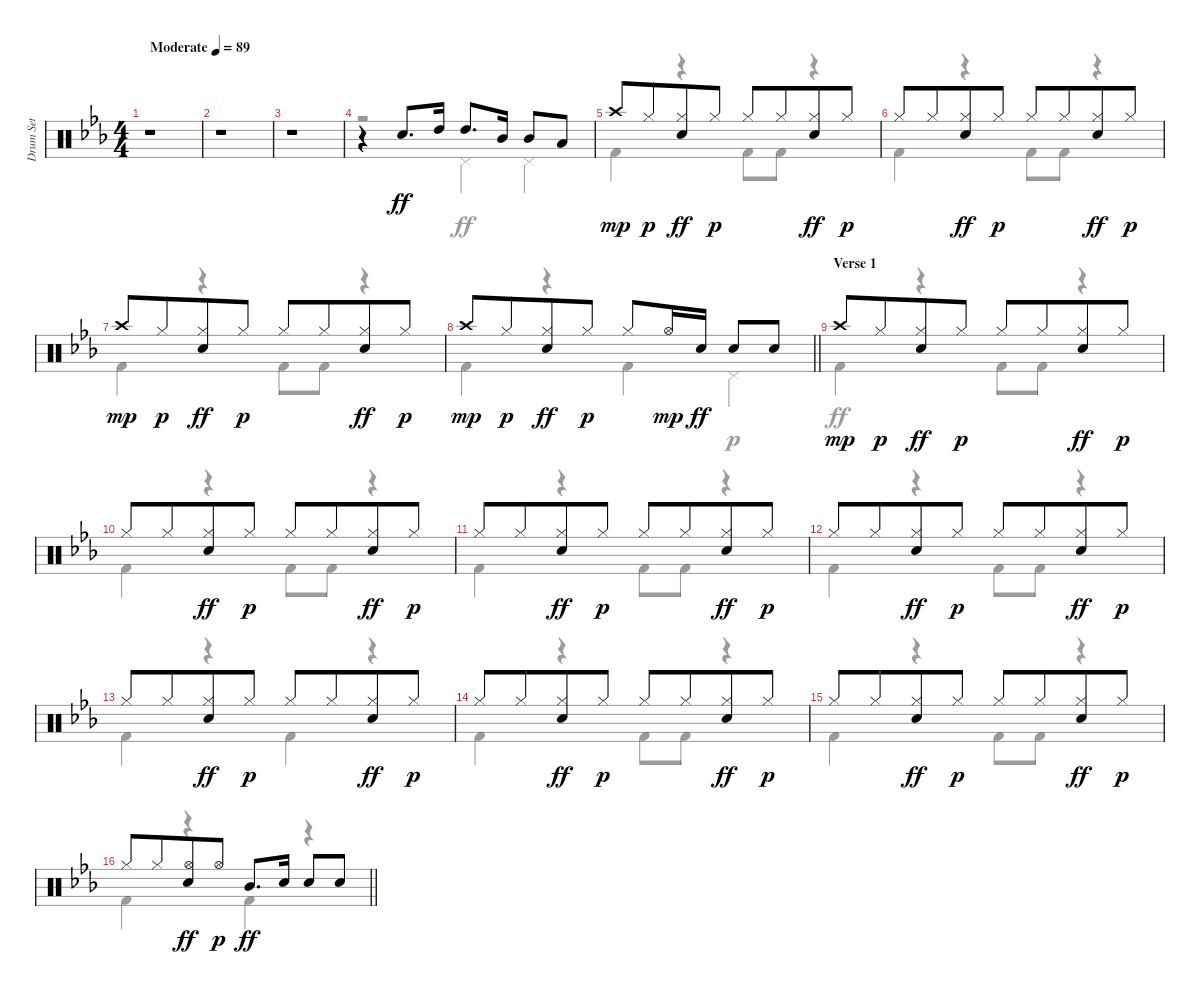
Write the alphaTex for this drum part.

\track ("Drum Set" "Drum Set") {instrument percussion}
\staff {score}
\articulation defaults
\voice
\ts (4 4)
\tempo (89 "Moderate")
\clef neutral
\ks eb
r.1{dy ff} |
r.1 |
r.1 |
r.4 "Electric Snare (hit)".8{d} "High Tom (hit)".16 "High Tom (hit)".8{d} "Mid Tom (hit)".16 "Mid Tom (hit)".8 "Low Tom (hit)".8 |
"Crash high (hit)".8{dy mp} "Hi-Hat (closed)".8{dy p beam merge} ("Hi-Hat (closed)" "Electric Snare (hit)").8{dy ff} "Hi-Hat (closed)".8{dy p} "Hi-Hat (closed)".8 "Hi-Hat (closed)".8{beam merge} ("Hi-Hat (closed)" "Electric Snare (hit)").8{dy ff} "Hi-Hat (closed)".8{dy p} |
"Hi-Hat (closed)".8 "Hi-Hat (closed)".8{beam merge} ("Hi-Hat (closed)" "Electric Snare (hit)").8{dy ff} "Hi-Hat (closed)".8{dy p} "Hi-Hat (closed)".8 "Hi-Hat (closed)".8{beam merge} ("Hi-Hat (closed)" "Electric Snare (hit)").8{dy ff} "Hi-Hat (closed)".8{dy p} |
"Crash high (hit)".8{dy mp} "Hi-Hat (closed)".8{dy p beam merge} ("Hi-Hat (closed)" "Electric Snare (hit)").8{dy ff} "Hi-Hat (closed)".8{dy p} "Hi-Hat (closed)".8 "Hi-Hat (closed)".8{beam merge} ("Hi-Hat (closed)" "Electric Snare (hit)").8{dy ff} "Hi-Hat (closed)".8{dy p} |
\barLineRight lightlight "Crash high (hit)".8{dy mp} "Hi-Hat (closed)".8{dy p beam merge}
("Hi-Hat (closed)" "Electric Snare (hit)").8{dy ff} "Hi-Hat (closed)".8{dy p} "Hi-Hat (closed)".8 "Hi-Hat (open)".16{dy mp} "Electric Snare (hit)".16{dy ff} "Electric Snare (hit)".8 "Electric Snare (hit)".8 |
\section ("" "Verse 1")
"Crash high (hit)".8{dy mp} "Hi-Hat (closed)".8{dy p beam merge} ("Hi-Hat (closed)" "Electric Snare (hit)").8{dy ff} "Hi-Hat (closed)".8{dy p} "Hi-Hat (closed)".8 "Hi-Hat (closed)".8{beam merge} ("Hi-Hat (closed)" "Electric Snare (hit)").8{dy ff} "Hi-Hat (closed)".8{dy p} |
"Hi-Hat (closed)".8 "Hi-Hat (closed)".8{beam merge} ("Hi-Hat (closed)" "Electric Snare (hit)").8{dy ff} "Hi-Hat (closed)".8{dy p} "Hi-Hat (closed)".8 "Hi-Hat (closed)".8{beam merge} ("Hi-Hat (closed)" "Electric Snare (hit)").8{dy ff} "Hi-Hat (closed)".8{dy p} |
"Hi-Hat (closed)".8 "Hi-Hat (closed)".8{beam merge} ("Hi-Hat (closed)" "Electric Snare (hit)").8{dy ff} "Hi-Hat (closed)".8{dy p} "Hi-Hat (closed)".8 "Hi-Hat (closed)".8{beam merge} ("Hi-Hat (closed)" "Electric Snare (hit)").8{dy ff} "Hi-Hat (closed)".8{dy p} |
"Hi-Hat (closed)".8 "Hi-Hat (closed)".8{beam merge} ("Hi-Hat (closed)" "Electric Snare (hit)").8{dy ff} "Hi-Hat (closed)".8{dy p} "Hi-Hat (closed)".8 "Hi-Hat (closed)".8{beam merge} ("Hi-Hat (closed)" "Electric Snare (hit)").8{dy ff} "Hi-Hat (closed)".8{dy p} |
"Hi-Hat (closed)".8 "Hi-Hat (closed)".8{beam merge} ("Hi-Hat (closed)" "Electric Snare (hit)").8{dy ff} "Hi-Hat (closed)".8{dy p} "Hi-Hat (closed)".8 "Hi-Hat (closed)".8{beam merge} ("Hi-Hat (closed)" "Electric Snare (hit)").8{dy ff} "Hi-Hat (closed)".8{dy p} |
"Hi-Hat (closed)".8 "Hi-Hat (closed)".8{beam merge} ("Hi-Hat (closed)" "Electric Snare (hit)").8{dy ff} "Hi-Hat (closed)".8{dy p} "Hi-Hat (closed)".8 "Hi-Hat (closed)".8{beam merge} ("Hi-Hat (closed)" "Electric Snare (hit)").8{dy ff} "Hi-Hat (closed)".8{dy p} |
"Hi-Hat (closed)".8 "Hi-Hat (closed)".8{beam merge} ("Hi-Hat (closed)" "Electric Snare (hit)").8{dy ff} "Hi-Hat (closed)".8{dy p} "Hi-Hat (closed)".8 "Hi-Hat (closed)".8{beam merge} ("Hi-Hat (closed)" "Electric Snare (hit)").8{dy ff} "Hi-Hat (closed)".8{dy p} |
\barLineRight lightlight "Hi-Hat (closed)".8 "Hi-Hat (closed)".8{beam merge}
("Hi-Hat (open)" "Electric Snare (hit)").8{dy ff} "Hi-Hat (open)".8{dy p} "Mid Tom (hit)".8{d dy ff} "Electric Snare (hit)".16 "Electric Snare (hit)".8 "Electric Snare (hit)".8
\voice
\clef neutral
\ottava regular
\simile none
\ks eb
|
|
|
r.2 "Pedal Hi-Hat (hit)".4 "Pedal Hi-Hat (hit)".4 |
"Kick (hit) 2".4{dy ff} r.4 "Kick (hit) 2".8 "Kick (hit) 2".8 r.4 |
"Kick (hit) 2".4 r.4 "Kick (hit) 2".8 "Kick (hit) 2".8 r.4 |
"Kick (hit) 2".4 r.4 "Kick (hit) 2".8 "Kick (hit) 2".8 r.4 |
\barLineRight lightlight "Kick (hit) 2".4
r.4 "Kick (hit) 2".4 "Pedal Hi-Hat (hit)".4{dy p} |
"Kick (hit) 2".4{dy ff} r.4 "Kick (hit) 2".8 "Kick (hit) 2".8 r.4 |
"Kick (hit) 2".4 r.4 "Kick (hit) 2".8 "Kick (hit) 2".8 r.4 |
"Kick (hit) 2".4 r.4 "Kick (hit) 2".8 "Kick (hit) 2".8 r.4 |
"Kick (hit) 2".4 r.4 "Kick (hit) 2".8 "Kick (hit) 2".8 r.4 |
"Kick (hit) 2".4 r.4 "Kick (hit) 2".4 r.4 |
"Kick (hit) 2".4 r.4 "Kick (hit) 2".8 "Kick (hit) 2".8 r.4 |
"Kick (hit) 2".4 r.4 "Kick (hit) 2".8 "Kick (hit) 2".8 r.4 |
\barLineRight lightlight "Kick (hit) 2".4
r.4 "Kick (hit) 2".4 r.4
